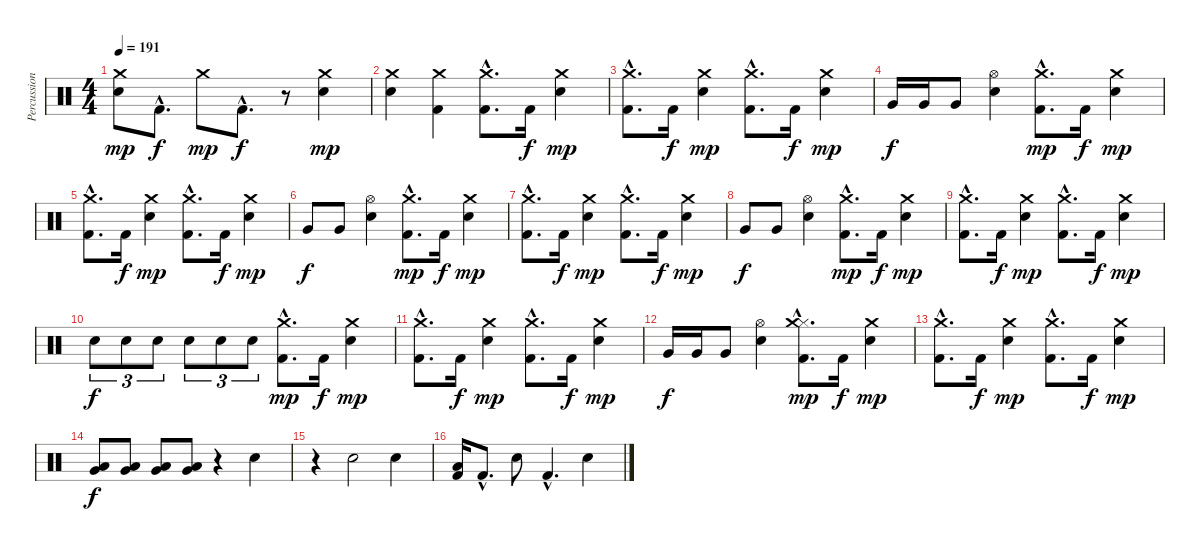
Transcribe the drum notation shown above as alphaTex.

\track ("Percussions" "Percussion") {instrument percussion}
\staff {score}
\articulation defaults
\ts (4 4)
\tempo 191
\clef neutral
\ks c
("Snare (hit) 2" "Crash medium (hit)").8{dy mp} "Kick (hit) 2"{hac}.8{d dy f} "Crash medium (hit)".8{dy mp} "Kick (hit) 2"{hac}.8{d dy f} r.8 ("Snare (hit) 2" "Crash medium (hit)").4{dy mp} |
("Snare (hit) 2" "Crash medium (hit)").4 ("Kick (hit) 2" "Crash medium (hit)").4 ("Kick (hit) 2"{hac} "Crash medium (hit)"{hac}).8{d} "Kick (hit) 2".16{dy f} ("Snare (hit) 2" "Crash medium (hit)").4{dy mp} |
("Kick (hit) 2"{hac} "Crash medium (hit)"{hac}).8{d} "Kick (hit) 2".16{dy f} ("Snare (hit) 2" "Crash medium (hit)").4{dy mp} ("Kick (hit) 2"{hac} "Crash medium (hit)"{hac}).8{d} "Kick (hit) 2".16{dy f} ("Snare (hit) 2" "Crash medium (hit)").4{dy mp} |
"Very Low Tom (hit)".16{dy f} "Very Low Tom (hit)".16 "Very Low Tom (hit)".8 ("Snare (hit) 2" "Hi-Hat (open)").4 ("Kick (hit) 2"{hac} "Crash medium (hit)"{hac}).8{d dy mp} "Kick (hit) 2".16{dy f} ("Snare (hit) 2" "Crash medium (hit)").4{dy mp} |
("Kick (hit) 2"{hac} "Crash medium (hit)"{hac}).8{d} "Kick (hit) 2".16{dy f} ("Snare (hit) 2" "Crash medium (hit)").4{dy mp} ("Kick (hit) 2"{hac} "Crash medium (hit)"{hac}).8{d} "Kick (hit) 2".16{dy f} ("Snare (hit) 2" "Crash medium (hit)").4{dy mp} |
"Very Low Tom (hit)".8{dy f} "Very Low Tom (hit)".8 ("Snare (hit) 2" "Hi-Hat (open)").4 ("Kick (hit) 2"{hac} "Crash medium (hit)"{hac}).8{d dy mp} "Kick (hit) 2".16{dy f} ("Snare (hit) 2" "Crash medium (hit)").4{dy mp} |
("Kick (hit) 2"{hac} "Crash medium (hit)"{hac}).8{d} "Kick (hit) 2".16{dy f} ("Snare (hit) 2" "Crash medium (hit)").4{dy mp} ("Kick (hit) 2"{hac} "Crash medium (hit)"{hac}).8{d} "Kick (hit) 2".16{dy f} ("Snare (hit) 2" "Crash medium (hit)").4{dy mp} |
"Very Low Tom (hit)".8{dy f} "Very Low Tom (hit)".8 ("Snare (hit) 2" "Hi-Hat (open)").4 ("Kick (hit) 2"{hac} "Crash medium (hit)"{hac}).8{d dy mp} "Kick (hit) 2".16{dy f} ("Snare (hit) 2" "Crash medium (hit)").4{dy mp} |
("Kick (hit) 2"{hac} "Crash medium (hit)"{hac}).8{d} "Kick (hit) 2".16{dy f} ("Snare (hit) 2" "Crash medium (hit)").4{dy mp} ("Kick (hit) 2"{hac} "Crash medium (hit)"{hac}).8{d} "Kick (hit) 2".16{dy f} ("Snare (hit) 2" "Crash medium (hit)").4{dy mp} |
"Snare (hit) 2".8{tu (3 2) dy f} "Snare (hit) 2".8{tu (3 2)} "Snare (hit) 2".8{tu (3 2)} "Snare (hit) 2".8{tu (3 2)} "Snare (hit) 2".8{tu (3 2)} "Snare (hit) 2".8{tu (3 2)} ("Kick (hit) 2"{hac} "Crash medium (hit)"{hac}).8{d dy mp} "Kick (hit) 2".16{dy f} ("Snare (hit) 2" "Crash medium (hit)").4{dy mp} |
("Kick (hit) 2"{hac} "Crash medium (hit)"{hac}).8{d} "Kick (hit) 2".16{dy f} ("Snare (hit) 2" "Crash medium (hit)").4{dy mp} ("Kick (hit) 2"{hac} "Crash medium (hit)"{hac}).8{d} "Kick (hit) 2".16{dy f} ("Snare (hit) 2" "Crash medium (hit)").4{dy mp} |
"Very Low Tom (hit)".16{dy f} "Very Low Tom (hit)".16 "Very Low Tom (hit)".8 ("Snare (hit) 2" "Hi-Hat (open)").4 ("Kick (hit) 2"{hac} "Hi-Hat (closed)"{hac} "Crash medium (hit)"{hac}).8{d dy mp} "Kick (hit) 2".16{dy f} ("Snare (hit) 2" "Crash medium (hit)").4{dy mp} |
("Kick (hit) 2"{hac} "Crash medium (hit)"{hac}).8{d} "Kick (hit) 2".16{dy f} ("Snare (hit) 2" "Crash medium (hit)").4{dy mp} ("Kick (hit) 2"{hac} "Crash medium (hit)"{hac}).8{d} "Kick (hit) 2".16{dy f} ("Snare (hit) 2" "Crash medium (hit)").4{dy mp} |
("Low Tom (hit)" "Very Low Tom (hit)").8{dy f} ("Low Tom (hit)" "Very Low Tom (hit)").8 ("Low Tom (hit)" "Very Low Tom (hit)").8 ("Low Tom (hit)" "Very Low Tom (hit)").8 r.4 "Snare (hit) 2".4 |
r.4 "Snare (hit) 2".2 "Snare (hit) 2".4 |
("Kick (hit) 2" "Low Tom (hit)").16 "Kick (hit) 2"{hac}.8{d} "Snare (hit) 2".8 "Kick (hit) 2"{hac}.4{d} "Snare (hit) 2".4
